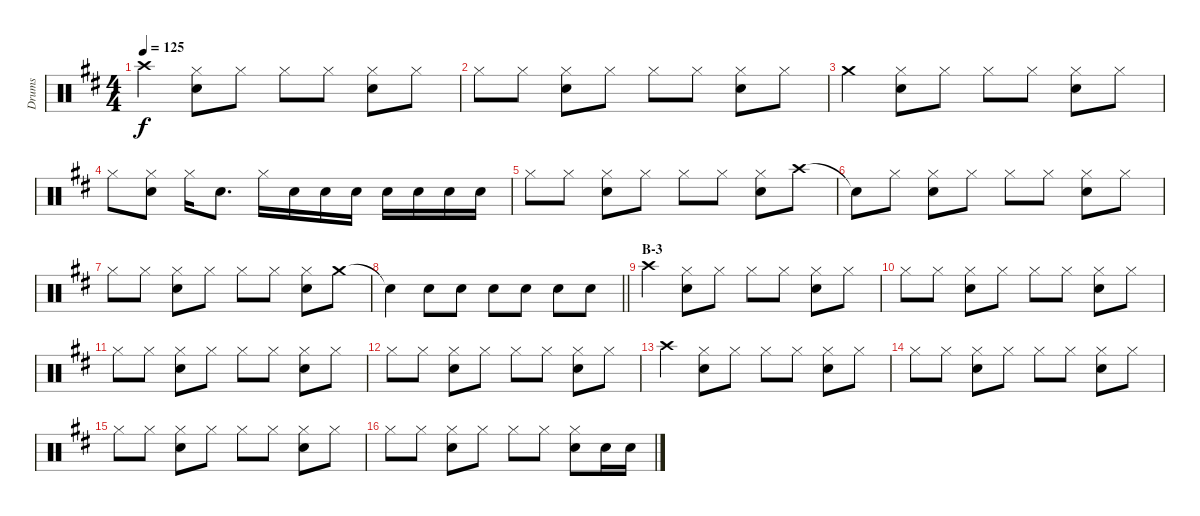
\track ("Drums" "Drums") {instrument percussion}
\staff {score}
\articulation defaults
\ts (4 4)
\tempo 125
\clef neutral
\ks d "Crash high (hit)".4{dy f}
("Hi-Hat (closed)" "Snare (hit) 2").8 "Hi-Hat (closed)".8 "Hi-Hat (closed)".8 "Hi-Hat (closed)".8 ("Hi-Hat (closed)" "Snare (hit) 2").8 "Hi-Hat (closed)".8 |
"Hi-Hat (closed)".8 "Hi-Hat (closed)".8 ("Hi-Hat (closed)" "Snare (hit) 2").8 "Hi-Hat (closed)".8 "Hi-Hat (closed)".8 "Hi-Hat (closed)".8 ("Hi-Hat (closed)" "Snare (hit) 2").8 "Hi-Hat (closed)".8 |
"Crash medium (hit)".4 ("Hi-Hat (closed)" "Snare (hit) 2").8 "Hi-Hat (closed)".8 "Hi-Hat (closed)".8 "Hi-Hat (closed)".8 ("Hi-Hat (closed)" "Snare (hit) 2").8 "Hi-Hat (closed)".8 |
"Hi-Hat (closed)".8 ("Hi-Hat (closed)" "Snare (hit) 2").8 "Hi-Hat (closed)".16 "Snare (hit) 2".8{d} "Hi-Hat (closed)".16 "Snare (hit) 2".16 "Snare (hit) 2".16 "Snare (hit) 2".16 "Snare (hit) 2".16 "Snare (hit) 2".16 "Snare (hit) 2".16 "Snare (hit) 2".16 |
"Hi-Hat (closed)".8 "Hi-Hat (closed)".8 ("Hi-Hat (closed)" "Snare (hit) 2").8 "Hi-Hat (closed)".8 "Hi-Hat (closed)".8 "Hi-Hat (closed)".8 ("Hi-Hat (closed)" "Snare (hit) 2").8 "Crash high (hit)".8 |
"Snare (hit)"{t}.8 "Hi-Hat (closed)".8 ("Hi-Hat (closed)" "Snare (hit) 2").8 "Hi-Hat (closed)".8 "Hi-Hat (closed)".8 "Hi-Hat (closed)".8 ("Hi-Hat (closed)" "Snare (hit) 2").8 "Hi-Hat (closed)".8 |
"Hi-Hat (closed)".8 "Hi-Hat (closed)".8 ("Hi-Hat (closed)" "Snare (hit) 2").8 "Hi-Hat (closed)".8 "Hi-Hat (closed)".8 "Hi-Hat (closed)".8 ("Hi-Hat (closed)" "Snare (hit) 2").8 "Crash medium (hit)".8 |
\barLineRight lightlight "Snare (hit)"{t}.4 "Snare (hit) 2".8 "Snare (hit) 2".8 "Snare (hit) 2".8 "Snare (hit) 2".8 "Snare (hit) 2".8 "Snare (hit) 2".8
|
\section ("" "B-3")
"Crash high (hit)".4 ("Hi-Hat (closed)" "Snare (hit) 2").8 "Hi-Hat (closed)".8 "Hi-Hat (closed)".8 "Hi-Hat (closed)".8 ("Hi-Hat (closed)" "Snare (hit) 2").8 "Hi-Hat (closed)".8 |
"Hi-Hat (closed)".8 "Hi-Hat (closed)".8 ("Hi-Hat (closed)" "Snare (hit) 2").8 "Hi-Hat (closed)".8 "Hi-Hat (closed)".8 "Hi-Hat (closed)".8 ("Hi-Hat (closed)" "Snare (hit) 2").8 "Hi-Hat (closed)".8 |
"Hi-Hat (closed)".8 "Hi-Hat (closed)".8 ("Hi-Hat (closed)" "Snare (hit) 2").8 "Hi-Hat (closed)".8 "Hi-Hat (closed)".8 "Hi-Hat (closed)".8 ("Hi-Hat (closed)" "Snare (hit) 2").8 "Hi-Hat (closed)".8 |
"Hi-Hat (closed)".8 "Hi-Hat (closed)".8 ("Hi-Hat (closed)" "Snare (hit) 2").8 "Hi-Hat (closed)".8 "Hi-Hat (closed)".8 "Hi-Hat (closed)".8 ("Hi-Hat (closed)" "Snare (hit) 2").8 "Hi-Hat (closed)".8 |
"Crash high (hit)".4 ("Hi-Hat (closed)" "Snare (hit) 2").8 "Hi-Hat (closed)".8 "Hi-Hat (closed)".8 "Hi-Hat (closed)".8 ("Hi-Hat (closed)" "Snare (hit) 2").8 "Hi-Hat (closed)".8 |
"Hi-Hat (closed)".8 "Hi-Hat (closed)".8 ("Hi-Hat (closed)" "Snare (hit) 2").8 "Hi-Hat (closed)".8 "Hi-Hat (closed)".8 "Hi-Hat (closed)".8 ("Hi-Hat (closed)" "Snare (hit) 2").8 "Hi-Hat (closed)".8 |
"Hi-Hat (closed)".8 "Hi-Hat (closed)".8 ("Hi-Hat (closed)" "Snare (hit) 2").8 "Hi-Hat (closed)".8 "Hi-Hat (closed)".8 "Hi-Hat (closed)".8 ("Hi-Hat (closed)" "Snare (hit) 2").8 "Hi-Hat (closed)".8 |
"Hi-Hat (closed)".8 "Hi-Hat (closed)".8 ("Hi-Hat (closed)" "Snare (hit) 2").8 "Hi-Hat (closed)".8 "Hi-Hat (closed)".8 "Hi-Hat (closed)".8 ("Hi-Hat (closed)" "Snare (hit) 2").8 "Snare (hit) 2".16 "Snare (hit) 2".16
